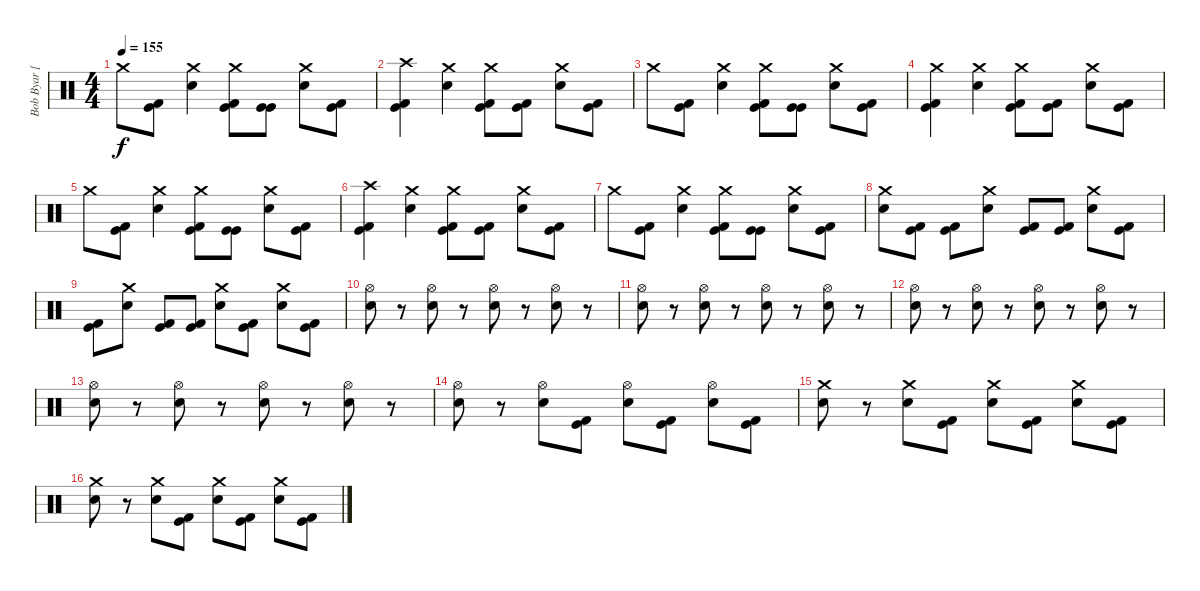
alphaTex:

\track ("Bob Byar [Drums]" "Bob Byar [") {instrument percussion}
\staff {score}
\articulation defaults
\ts (4 4)
\tempo 155
\clef neutral
\ks c "Crash medium (hit)".8{dy f}
("Kick (hit)" "Kick (hit) 2").8 ("Crash medium (hit)" "Electric Snare (hit)").4 ("Crash medium (hit)" "Kick (hit)" "Kick (hit) 2").8 ("Kick (hit)" "Kick (hit)").8 ("Crash medium (hit)" "Electric Snare (hit)").8 ("Kick (hit)" "Kick (hit) 2").8 |
("Crash high (hit)" "Kick (hit)" "Kick (hit) 2").4 ("Crash medium (hit)" "Electric Snare (hit)").4 ("Crash medium (hit)" "Kick (hit)" "Kick (hit) 2").8 ("Kick (hit)" "Kick (hit) 2").8 ("Crash medium (hit)" "Electric Snare (hit)").8 ("Kick (hit)" "Kick (hit) 2").8 |
"Crash medium (hit)".8 ("Kick (hit)" "Kick (hit) 2").8 ("Crash medium (hit)" "Electric Snare (hit)").4 ("Crash medium (hit)" "Kick (hit)" "Kick (hit) 2").8 ("Kick (hit)" "Kick (hit)").8 ("Crash medium (hit)" "Electric Snare (hit)").8 ("Kick (hit)" "Kick (hit) 2").8 |
("Crash medium (hit)" "Kick (hit)" "Kick (hit) 2").4 ("Crash medium (hit)" "Electric Snare (hit)").4 ("Crash medium (hit)" "Kick (hit)" "Kick (hit) 2").8 ("Kick (hit)" "Kick (hit) 2").8 ("Crash medium (hit)" "Electric Snare (hit)").8 ("Kick (hit)" "Kick (hit) 2").8 |
"Crash medium (hit)".8 ("Kick (hit)" "Kick (hit) 2").8 ("Crash medium (hit)" "Electric Snare (hit)").4 ("Crash medium (hit)" "Kick (hit)" "Kick (hit) 2").8 ("Kick (hit)" "Kick (hit)").8 ("Crash medium (hit)" "Electric Snare (hit)").8 ("Kick (hit)" "Kick (hit) 2").8 |
("Crash high (hit)" "Kick (hit)" "Kick (hit) 2").4 ("Crash medium (hit)" "Electric Snare (hit)").4 ("Crash medium (hit)" "Kick (hit)" "Kick (hit) 2").8 ("Kick (hit)" "Kick (hit) 2").8 ("Crash medium (hit)" "Electric Snare (hit)").8 ("Kick (hit)" "Kick (hit) 2").8 |
"Crash medium (hit)".8 ("Kick (hit)" "Kick (hit) 2").8 ("Crash medium (hit)" "Electric Snare (hit)").4 ("Crash medium (hit)" "Kick (hit)" "Kick (hit) 2").8 ("Kick (hit)" "Kick (hit)").8 ("Crash medium (hit)" "Electric Snare (hit)").8 ("Kick (hit)" "Kick (hit) 2").8 |
("Crash medium (hit)" "Electric Snare (hit)").8 ("Kick (hit)" "Kick (hit) 2").8 ("Kick (hit)" "Kick (hit) 2").8 ("Crash medium (hit)" "Electric Snare (hit)").8 ("Kick (hit)" "Kick (hit) 2").8 ("Kick (hit)" "Kick (hit) 2").8 ("Crash medium (hit)" "Electric Snare (hit)").8 ("Kick (hit)" "Kick (hit) 2").8 |
("Kick (hit)" "Kick (hit) 2").8 ("Crash medium (hit)" "Electric Snare (hit)").8 ("Kick (hit)" "Kick (hit) 2").8 ("Kick (hit)" "Kick (hit) 2").8 ("Crash medium (hit)" "Electric Snare (hit)").8 ("Kick (hit)" "Kick (hit) 2").8 ("Crash medium (hit)" "Electric Snare (hit)").8 ("Kick (hit)" "Kick (hit) 2").8 |
("Hi-Hat (open)" "Electric Snare (hit)").8 r.8 ("Hi-Hat (open)" "Electric Snare (hit)").8 r.8 ("Hi-Hat (open)" "Electric Snare (hit)").8 r.8 ("Hi-Hat (open)" "Electric Snare (hit)").8 r.8 |
("Hi-Hat (open)" "Electric Snare (hit)").8 r.8 ("Hi-Hat (open)" "Electric Snare (hit)").8 r.8 ("Hi-Hat (open)" "Electric Snare (hit)").8 r.8 ("Hi-Hat (open)" "Electric Snare (hit)").8 r.8 |
("Hi-Hat (open)" "Electric Snare (hit)").8 r.8 ("Hi-Hat (open)" "Electric Snare (hit)").8 r.8 ("Hi-Hat (open)" "Electric Snare (hit)").8 r.8 ("Hi-Hat (open)" "Electric Snare (hit)").8 r.8 |
("Hi-Hat (open)" "Electric Snare (hit)").8 r.8 ("Hi-Hat (open)" "Electric Snare (hit)").8 r.8 ("Hi-Hat (open)" "Electric Snare (hit)").8 r.8 ("Hi-Hat (open)" "Electric Snare (hit)").8 r.8 |
("Hi-Hat (open)" "Electric Snare (hit)").8 r.8 ("Hi-Hat (open)" "Electric Snare (hit)").8 ("Kick (hit)" "Kick (hit) 2").8 ("Hi-Hat (open)" "Electric Snare (hit)").8 ("Kick (hit)" "Kick (hit) 2").8 ("Hi-Hat (open)" "Electric Snare (hit)").8 ("Kick (hit)" "Kick (hit) 2").8 |
("Crash medium (hit)" "Electric Snare (hit)").8 r.8 ("Crash medium (hit)" "Electric Snare (hit)").8 ("Kick (hit)" "Kick (hit) 2").8 ("Crash medium (hit)" "Electric Snare (hit)").8 ("Kick (hit)" "Kick (hit) 2").8 ("Crash medium (hit)" "Electric Snare (hit)").8 ("Kick (hit) 2" "Kick (hit)").8 |
("Crash medium (hit)" "Electric Snare (hit)").8 r.8 ("Crash medium (hit)" "Electric Snare (hit)").8 ("Kick (hit)" "Kick (hit) 2").8 ("Crash medium (hit)" "Electric Snare (hit)").8 ("Kick (hit)" "Kick (hit) 2").8 ("Crash medium (hit)" "Electric Snare (hit)").8 ("Kick (hit) 2" "Kick (hit)").8
